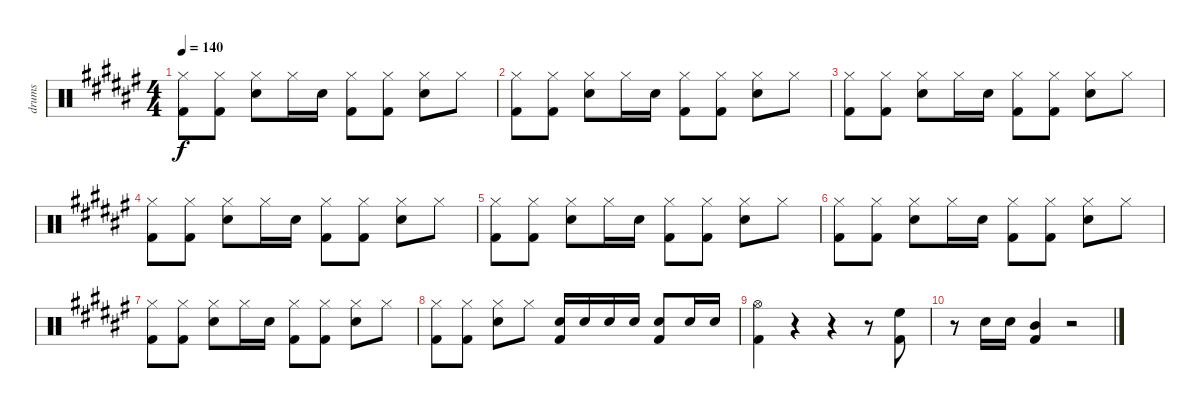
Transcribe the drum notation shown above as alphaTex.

\track ("drums" "drums") {instrument percussion}
\staff {score}
\articulation defaults
\ts (4 4)
\tempo 140
\clef neutral
\ks d#minor
("Hi-Hat (closed)" "Kick (hit) 2").8{dy f} ("Hi-Hat (closed)" "Kick (hit) 2").8 ("Hi-Hat (closed)" "Snare (hit) 2").8 "Hi-Hat (closed)".16 "Snare (hit) 2".16 ("Hi-Hat (closed)" "Kick (hit) 2").8 ("Hi-Hat (closed)" "Kick (hit) 2").8 ("Hi-Hat (closed)" "Snare (hit) 2").8 "Hi-Hat (closed)".8 |
("Hi-Hat (closed)" "Kick (hit) 2").8 ("Hi-Hat (closed)" "Kick (hit) 2").8 ("Hi-Hat (closed)" "Snare (hit) 2").8 "Hi-Hat (closed)".16 "Snare (hit) 2".16 ("Hi-Hat (closed)" "Kick (hit) 2").8 ("Hi-Hat (closed)" "Kick (hit) 2").8 ("Hi-Hat (closed)" "Snare (hit) 2").8 "Hi-Hat (closed)".8 |
("Hi-Hat (closed)" "Kick (hit) 2").8 ("Hi-Hat (closed)" "Kick (hit) 2").8 ("Hi-Hat (closed)" "Snare (hit) 2").8 "Hi-Hat (closed)".16 "Snare (hit) 2".16 ("Hi-Hat (closed)" "Kick (hit) 2").8 ("Hi-Hat (closed)" "Kick (hit) 2").8 ("Hi-Hat (closed)" "Snare (hit) 2").8 "Hi-Hat (closed)".8 |
("Hi-Hat (closed)" "Kick (hit) 2").8 ("Hi-Hat (closed)" "Kick (hit) 2").8 ("Hi-Hat (closed)" "Snare (hit) 2").8 "Hi-Hat (closed)".16 "Snare (hit) 2".16 ("Hi-Hat (closed)" "Kick (hit) 2").8 ("Hi-Hat (closed)" "Kick (hit) 2").8 ("Hi-Hat (closed)" "Snare (hit) 2").8 "Hi-Hat (closed)".8 |
("Hi-Hat (closed)" "Kick (hit) 2").8 ("Hi-Hat (closed)" "Kick (hit) 2").8 ("Hi-Hat (closed)" "Snare (hit) 2").8 "Hi-Hat (closed)".16 "Snare (hit) 2".16 ("Hi-Hat (closed)" "Kick (hit) 2").8 ("Hi-Hat (closed)" "Kick (hit) 2").8 ("Hi-Hat (closed)" "Snare (hit) 2").8 "Hi-Hat (closed)".8 |
("Hi-Hat (closed)" "Kick (hit) 2").8 ("Hi-Hat (closed)" "Kick (hit) 2").8 ("Hi-Hat (closed)" "Snare (hit) 2").8 "Hi-Hat (closed)".16 "Snare (hit) 2".16 ("Hi-Hat (closed)" "Kick (hit) 2").8 ("Hi-Hat (closed)" "Kick (hit) 2").8 ("Hi-Hat (closed)" "Snare (hit) 2").8 "Hi-Hat (closed)".8 |
("Hi-Hat (closed)" "Kick (hit) 2").8 ("Hi-Hat (closed)" "Kick (hit) 2").8 ("Hi-Hat (closed)" "Snare (hit) 2").8 "Hi-Hat (closed)".16 "Snare (hit) 2".16 ("Hi-Hat (closed)" "Kick (hit) 2").8 ("Hi-Hat (closed)" "Kick (hit) 2").8 ("Hi-Hat (closed)" "Snare (hit) 2").8 "Hi-Hat (closed)".8 |
("Hi-Hat (closed)" "Kick (hit) 2").8 ("Hi-Hat (closed)" "Kick (hit) 2").8 ("Hi-Hat (closed)" "Snare (hit) 2").8 "Hi-Hat (closed)".8 ("Snare (hit) 2" "Kick (hit) 2").16 "Snare (hit) 2".16 "Snare (hit) 2".16 "Snare (hit) 2".16 ("Snare (hit) 2" "Kick (hit) 2").8 "Snare (hit) 2".16 "Snare (hit) 2".16 |
("Hi-Hat (open)" "Kick (hit) 2").4 r.4 r.4 r.8 ("High Floor Tom (hit)" "Kick (hit) 2").8 |
r.8 "Snare (hit) 2".16 "Snare (hit) 2".16 ("Mid Tom (hit)" "Kick (hit) 2").4 r.2
